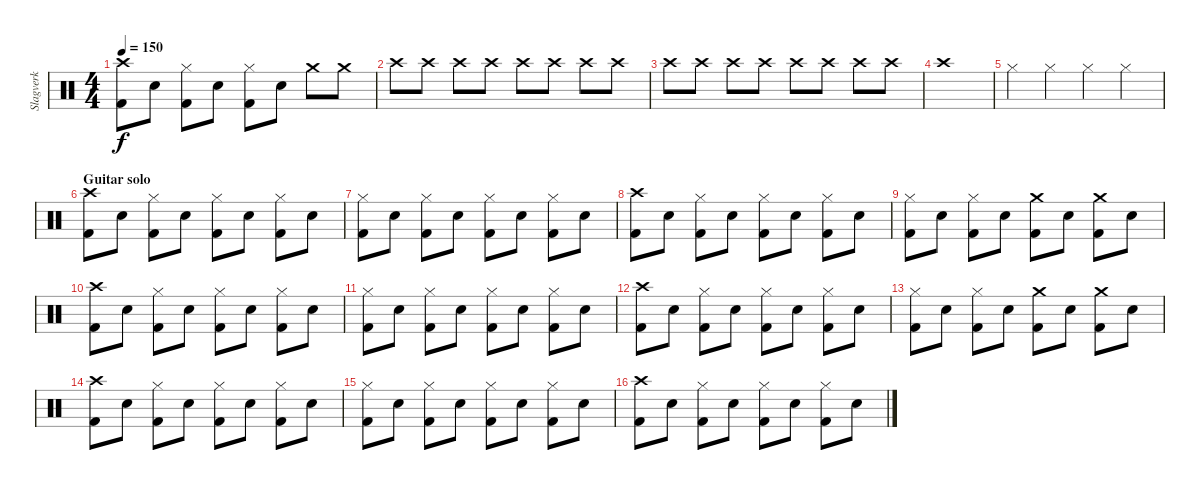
\track ("Slagverk" "Slagverk") {instrument percussion}
\staff {score}
\articulation defaults
\ts (4 4)
\tempo 150
\clef neutral
\ks c
("Crash high (hit)" "Kick (hit) 2").8{dy f} "Electric Snare (hit)".8 ("Hi-Hat (closed)" "Kick (hit) 2").8 "Electric Snare (hit)".8 ("Hi-Hat (closed)" "Kick (hit) 2").8 "Electric Snare (hit)".8 "Crash medium (hit)".8 "Crash medium (hit)".8 |
"Crash high (hit)".8 "Crash high (hit)".8 "Crash high (hit)".8 "Crash high (hit)".8 "Crash high (hit)".8 "Crash high (hit)".8 "Crash high (hit)".8 "Crash high (hit)".8 |
"Crash high (hit)".8 "Crash high (hit)".8 "Crash high (hit)".8 "Crash high (hit)".8 "Crash high (hit)".8 "Crash high (hit)".8 "Crash high (hit)".8 "Crash high (hit)".8 |
"Crash high (hit)".1 |
"Hi-Hat (closed)".4 "Hi-Hat (closed)".4 "Hi-Hat (closed)".4 "Hi-Hat (closed)".4 |
\section ("" "Guitar solo")
("Crash high (hit)" "Kick (hit) 2").8 "Electric Snare (hit)".8 ("Hi-Hat (closed)" "Kick (hit) 2").8 "Electric Snare (hit)".8 ("Hi-Hat (closed)" "Kick (hit) 2").8 "Electric Snare (hit)".8 ("Hi-Hat (closed)" "Kick (hit) 2").8 "Electric Snare (hit)".8 |
("Hi-Hat (closed)" "Kick (hit) 2").8 "Electric Snare (hit)".8 ("Hi-Hat (closed)" "Kick (hit) 2").8 "Electric Snare (hit)".8 ("Hi-Hat (closed)" "Kick (hit) 2").8 "Electric Snare (hit)".8 ("Hi-Hat (closed)" "Kick (hit) 2").8 "Electric Snare (hit)".8 |
("Crash high (hit)" "Kick (hit) 2").8 "Electric Snare (hit)".8 ("Hi-Hat (closed)" "Kick (hit) 2").8 "Electric Snare (hit)".8 ("Hi-Hat (closed)" "Kick (hit) 2").8 "Electric Snare (hit)".8 ("Hi-Hat (closed)" "Kick (hit) 2").8 "Electric Snare (hit)".8 |
("Hi-Hat (closed)" "Kick (hit) 2").8 "Electric Snare (hit)".8 ("Hi-Hat (closed)" "Kick (hit) 2").8 "Electric Snare (hit)".8 ("Crash medium (hit)" "Kick (hit) 2").8 "Electric Snare (hit)".8 ("Crash medium (hit)" "Kick (hit) 2").8 "Electric Snare (hit)".8 |
("Crash high (hit)" "Kick (hit) 2").8 "Electric Snare (hit)".8 ("Hi-Hat (closed)" "Kick (hit) 2").8 "Electric Snare (hit)".8 ("Hi-Hat (closed)" "Kick (hit) 2").8 "Electric Snare (hit)".8 ("Hi-Hat (closed)" "Kick (hit) 2").8 "Electric Snare (hit)".8 |
("Hi-Hat (closed)" "Kick (hit) 2").8 "Electric Snare (hit)".8 ("Hi-Hat (closed)" "Kick (hit) 2").8 "Electric Snare (hit)".8 ("Hi-Hat (closed)" "Kick (hit) 2").8 "Electric Snare (hit)".8 ("Hi-Hat (closed)" "Kick (hit) 2").8 "Electric Snare (hit)".8 |
("Crash high (hit)" "Kick (hit) 2").8 "Electric Snare (hit)".8 ("Hi-Hat (closed)" "Kick (hit) 2").8 "Electric Snare (hit)".8 ("Hi-Hat (closed)" "Kick (hit) 2").8 "Electric Snare (hit)".8 ("Hi-Hat (closed)" "Kick (hit) 2").8 "Electric Snare (hit)".8 |
("Hi-Hat (closed)" "Kick (hit) 2").8 "Electric Snare (hit)".8 ("Hi-Hat (closed)" "Kick (hit) 2").8 "Electric Snare (hit)".8 ("Crash medium (hit)" "Kick (hit) 2").8 "Electric Snare (hit)".8 ("Crash medium (hit)" "Kick (hit) 2").8 "Electric Snare (hit)".8 |
("Crash high (hit)" "Kick (hit) 2").8 "Electric Snare (hit)".8 ("Hi-Hat (closed)" "Kick (hit) 2").8 "Electric Snare (hit)".8 ("Hi-Hat (closed)" "Kick (hit) 2").8 "Electric Snare (hit)".8 ("Hi-Hat (closed)" "Kick (hit) 2").8 "Electric Snare (hit)".8 |
("Hi-Hat (closed)" "Kick (hit) 2").8 "Electric Snare (hit)".8 ("Hi-Hat (closed)" "Kick (hit) 2").8 "Electric Snare (hit)".8 ("Hi-Hat (closed)" "Kick (hit) 2").8 "Electric Snare (hit)".8 ("Hi-Hat (closed)" "Kick (hit) 2").8 "Electric Snare (hit)".8 |
("Crash high (hit)" "Kick (hit) 2").8 "Electric Snare (hit)".8 ("Hi-Hat (closed)" "Kick (hit) 2").8 "Electric Snare (hit)".8 ("Hi-Hat (closed)" "Kick (hit) 2").8 "Electric Snare (hit)".8 ("Hi-Hat (closed)" "Kick (hit) 2").8 "Electric Snare (hit)".8
